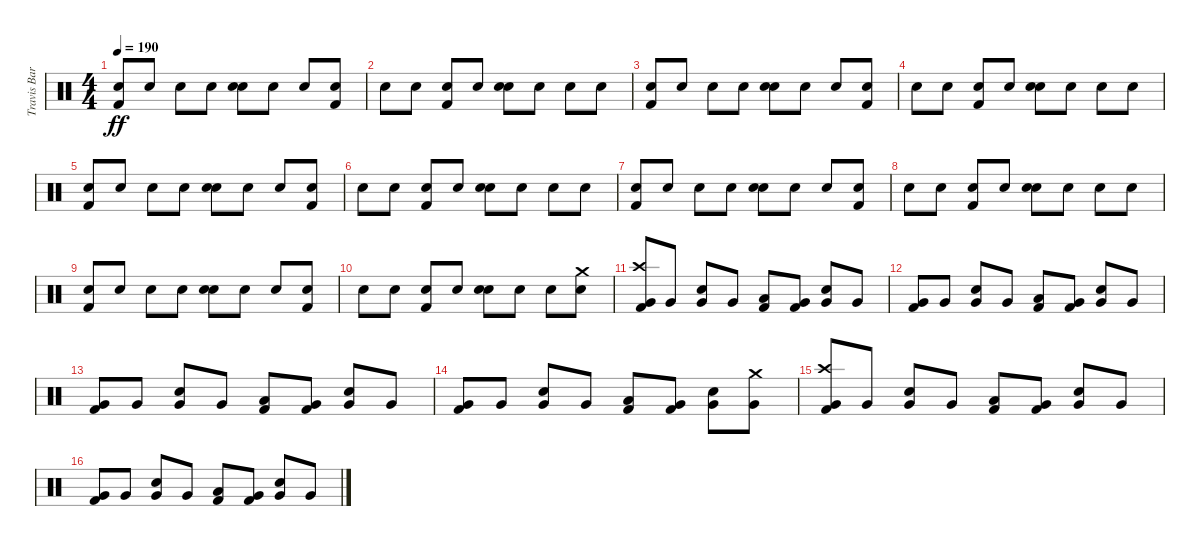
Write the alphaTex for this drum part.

\track ("Travis Barker - Drums" "Travis Bar") {instrument percussion}
\staff {score}
\articulation defaults
\ts (4 4)
\tempo 190
\clef neutral
\ks c
("Snare (hit)" "Kick (hit) 2").8{dy ff} "Snare (hit)".8 "Snare (hit)".8 "Snare (hit)".8 ("Snare (hit)" "Electric Snare (hit)").8 "Snare (hit)".8 "Snare (hit)".8 ("Snare (hit)" "Kick (hit) 2").8 |
"Snare (hit)".8 "Snare (hit)".8 ("Snare (hit)" "Kick (hit) 2").8 "Snare (hit)".8 ("Snare (hit)" "Electric Snare (hit)").8 "Snare (hit)".8 "Snare (hit)".8 "Snare (hit)".8 |
("Snare (hit)" "Kick (hit) 2").8 "Snare (hit)".8 "Snare (hit)".8 "Snare (hit)".8 ("Snare (hit)" "Electric Snare (hit)").8 "Snare (hit)".8 "Snare (hit)".8 ("Snare (hit)" "Kick (hit) 2").8 |
"Snare (hit)".8 "Snare (hit)".8 ("Snare (hit)" "Kick (hit) 2").8 "Snare (hit)".8 ("Snare (hit)" "Electric Snare (hit)").8 "Snare (hit)".8 "Snare (hit)".8 "Snare (hit)".8 |
("Snare (hit)" "Kick (hit) 2").8 "Snare (hit)".8 "Snare (hit)".8 "Snare (hit)".8 ("Snare (hit)" "Electric Snare (hit)").8 "Snare (hit)".8 "Snare (hit)".8 ("Snare (hit)" "Kick (hit) 2").8 |
"Snare (hit)".8 "Snare (hit)".8 ("Snare (hit)" "Kick (hit) 2").8 "Snare (hit)".8 ("Snare (hit)" "Electric Snare (hit)").8 "Snare (hit)".8 "Snare (hit)".8 "Snare (hit)".8 |
("Snare (hit)" "Kick (hit) 2").8 "Snare (hit)".8 "Snare (hit)".8 "Snare (hit)".8 ("Snare (hit)" "Electric Snare (hit)").8 "Snare (hit)".8 "Snare (hit)".8 ("Snare (hit)" "Kick (hit) 2").8 |
"Snare (hit)".8 "Snare (hit)".8 ("Snare (hit)" "Kick (hit) 2").8 "Snare (hit)".8 ("Snare (hit)" "Electric Snare (hit)").8 "Snare (hit)".8 "Snare (hit)".8 "Snare (hit)".8 |
("Snare (hit)" "Kick (hit) 2").8 "Snare (hit)".8 "Snare (hit)".8 "Snare (hit)".8 ("Snare (hit)" "Electric Snare (hit)").8 "Snare (hit)".8 "Snare (hit)".8 ("Snare (hit)" "Kick (hit) 2").8 |
"Snare (hit)".8 "Snare (hit)".8 ("Snare (hit)" "Kick (hit) 2").8 "Snare (hit)".8 ("Snare (hit)" "Electric Snare (hit)").8 "Snare (hit)".8 "Snare (hit)".8 ("Crash medium (hit)" "Snare (hit)").8 |
("Crash high (hit)" "Very Low Tom (hit)" "Kick (hit) 2").8 "Very Low Tom (hit)".8 ("Very Low Tom (hit)" "Electric Snare (hit)").8 "Very Low Tom (hit)".8 ("Low Floor Tom (hit)" "Kick (hit) 2").8 ("Very Low Tom (hit)" "Kick (hit) 2").8 ("Very Low Tom (hit)" "Electric Snare (hit)").8 "Very Low Tom (hit)".8 |
("Very Low Tom (hit)" "Kick (hit) 2").8 "Very Low Tom (hit)".8 ("Very Low Tom (hit)" "Electric Snare (hit)").8 "Very Low Tom (hit)".8 ("Low Floor Tom (hit)" "Kick (hit) 2").8 ("Very Low Tom (hit)" "Kick (hit) 2").8 ("Very Low Tom (hit)" "Electric Snare (hit)").8 "Very Low Tom (hit)".8 |
("Very Low Tom (hit)" "Kick (hit) 2").8 "Very Low Tom (hit)".8 ("Very Low Tom (hit)" "Electric Snare (hit)").8 "Very Low Tom (hit)".8 ("Low Floor Tom (hit)" "Kick (hit) 2").8 ("Very Low Tom (hit)" "Kick (hit) 2").8 ("Very Low Tom (hit)" "Electric Snare (hit)").8 "Very Low Tom (hit)".8 |
("Very Low Tom (hit)" "Kick (hit) 2").8 "Very Low Tom (hit)".8 ("Very Low Tom (hit)" "Electric Snare (hit)").8 "Very Low Tom (hit)".8 ("Low Floor Tom (hit)" "Kick (hit) 2").8 ("Very Low Tom (hit)" "Kick (hit) 2").8 ("Very Low Tom (hit)" "Electric Snare (hit)").8 ("Crash medium (hit)" "Very Low Tom (hit)").8 |
("Crash high (hit)" "Very Low Tom (hit)" "Kick (hit) 2").8 "Very Low Tom (hit)".8 ("Very Low Tom (hit)" "Electric Snare (hit)").8 "Very Low Tom (hit)".8 ("Low Floor Tom (hit)" "Kick (hit) 2").8 ("Very Low Tom (hit)" "Kick (hit) 2").8 ("Very Low Tom (hit)" "Electric Snare (hit)").8 "Very Low Tom (hit)".8 |
("Very Low Tom (hit)" "Kick (hit) 2").8 "Very Low Tom (hit)".8 ("Very Low Tom (hit)" "Electric Snare (hit)").8 "Very Low Tom (hit)".8 ("Low Floor Tom (hit)" "Kick (hit) 2").8 ("Very Low Tom (hit)" "Kick (hit) 2").8 ("Very Low Tom (hit)" "Electric Snare (hit)").8 "Very Low Tom (hit)".8
